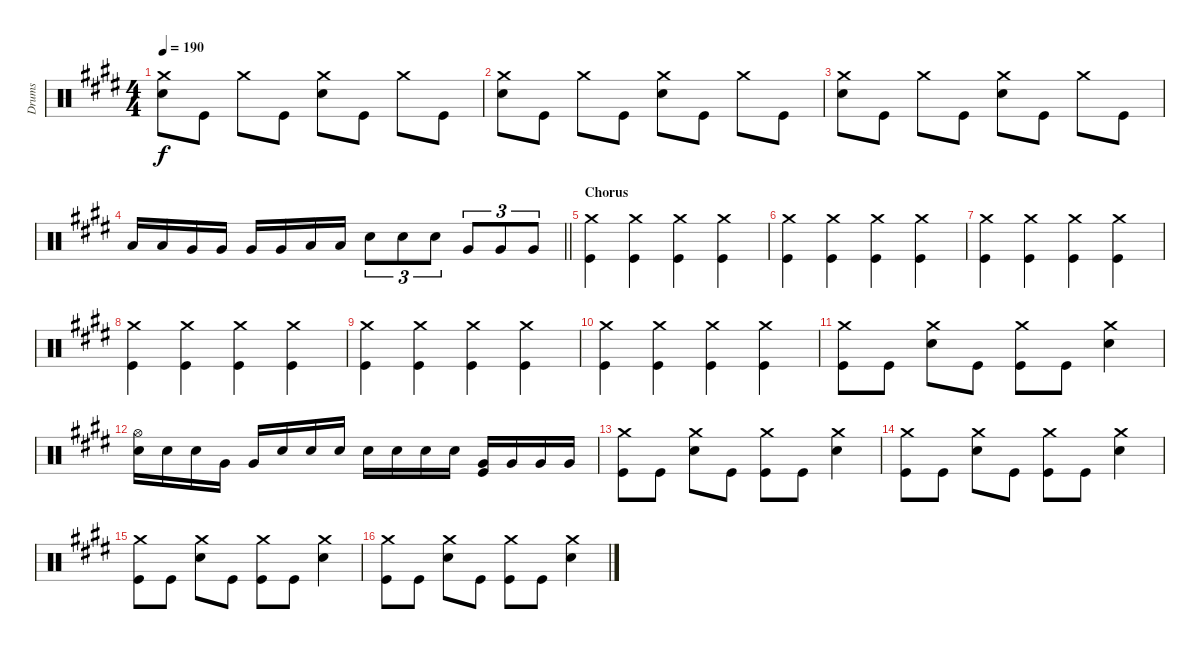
\track ("Drums" "Drums") {instrument percussion}
\staff {score}
\articulation defaults
\ts (4 4)
\tempo 190
\clef neutral
\ks e
("Snare (hit) 2" "Crash medium (hit)").8{dy f} "Kick (hit)".8 "Crash medium (hit)".8 "Kick (hit)".8 ("Snare (hit) 2" "Crash medium (hit)").8 "Kick (hit)".8 "Crash medium (hit)".8 "Kick (hit)".8 |
("Snare (hit) 2" "Crash medium (hit)").8 "Kick (hit)".8 "Crash medium (hit)".8 "Kick (hit)".8 ("Snare (hit) 2" "Crash medium (hit)").8 "Kick (hit)".8 "Crash medium (hit)".8 "Kick (hit)".8 |
("Snare (hit) 2" "Crash medium (hit)").8 "Kick (hit)".8 "Crash medium (hit)".8 "Kick (hit)".8 ("Snare (hit) 2" "Crash medium (hit)").8 "Kick (hit)".8 "Crash medium (hit)".8 "Kick (hit)".8 |
\barLineRight lightlight "Low Tom (hit)".16 "Low Tom (hit)".16 "Very Low Tom (hit)".16 "Very Low Tom (hit)".16 "Very Low Tom (hit)".16 "Very Low Tom (hit)".16 "Low Tom (hit)".16 "Low Tom (hit)".16 "Snare (hit) 2".8{tu (3 2)} "Snare (hit) 2".8{tu (3 2)} "Snare (hit) 2".8{tu (3 2)} "Very Low Tom (hit)".8{tu (3 2)} "Very Low Tom (hit)".8{tu (3 2)} "Very Low Tom (hit)".8{tu (3 2)}
|
\section ("" "Chorus")
("Kick (hit)" "Crash medium (hit)").4 ("Kick (hit)" "Crash medium (hit)").4 ("Kick (hit)" "Crash medium (hit)").4 ("Kick (hit)" "Crash medium (hit)").4 |
("Kick (hit)" "Crash medium (hit)").4 ("Kick (hit)" "Crash medium (hit)").4 ("Kick (hit)" "Crash medium (hit)").4 ("Kick (hit)" "Crash medium (hit)").4 |
("Kick (hit)" "Crash medium (hit)").4 ("Kick (hit)" "Crash medium (hit)").4 ("Kick (hit)" "Crash medium (hit)").4 ("Kick (hit)" "Crash medium (hit)").4 |
("Kick (hit)" "Crash medium (hit)").4 ("Kick (hit)" "Crash medium (hit)").4 ("Kick (hit)" "Crash medium (hit)").4 ("Kick (hit)" "Crash medium (hit)").4 |
("Kick (hit)" "Crash medium (hit)").4 ("Kick (hit)" "Crash medium (hit)").4 ("Kick (hit)" "Crash medium (hit)").4 ("Kick (hit)" "Crash medium (hit)").4 |
("Kick (hit)" "Crash medium (hit)").4 ("Kick (hit)" "Crash medium (hit)").4 ("Kick (hit)" "Crash medium (hit)").4 ("Kick (hit)" "Crash medium (hit)").4 |
("Kick (hit)" "Crash medium (hit)").8 "Kick (hit)".8 ("Snare (hit) 2" "Crash medium (hit)").8 "Kick (hit)".8 ("Kick (hit)" "Crash medium (hit)").8 "Kick (hit)".8 ("Snare (hit) 2" "Crash medium (hit)").4 |
("Snare (hit) 2" "Hi-Hat (open)").16 "Snare (hit) 2".16 "Snare (hit) 2".16 "Very Low Tom (hit)".16 "Very Low Tom (hit)".16 "Snare (hit) 2".16 "Snare (hit) 2".16 "Snare (hit) 2".16 "Snare (hit) 2".16 "Snare (hit) 2".16 "Snare (hit) 2".16 "Snare (hit) 2".16 ("Very Low Tom (hit)" "Kick (hit)").16 "Very Low Tom (hit)".16 "Very Low Tom (hit)".16 "Very Low Tom (hit)".16 |
("Kick (hit)" "Crash medium (hit)").8 "Kick (hit)".8 ("Snare (hit) 2" "Crash medium (hit)").8 "Kick (hit)".8 ("Kick (hit)" "Crash medium (hit)").8 "Kick (hit)".8 ("Snare (hit) 2" "Crash medium (hit)").4 |
("Kick (hit)" "Crash medium (hit)").8 "Kick (hit)".8 ("Snare (hit) 2" "Crash medium (hit)").8 "Kick (hit)".8 ("Kick (hit)" "Crash medium (hit)").8 "Kick (hit)".8 ("Snare (hit) 2" "Crash medium (hit)").4 |
("Kick (hit)" "Crash medium (hit)").8 "Kick (hit)".8 ("Snare (hit) 2" "Crash medium (hit)").8 "Kick (hit)".8 ("Kick (hit)" "Crash medium (hit)").8 "Kick (hit)".8 ("Snare (hit) 2" "Crash medium (hit)").4 |
("Kick (hit)" "Crash medium (hit)").8 "Kick (hit)".8 ("Snare (hit) 2" "Crash medium (hit)").8 "Kick (hit)".8 ("Kick (hit)" "Crash medium (hit)").8 "Kick (hit)".8 ("Snare (hit) 2" "Crash medium (hit)").4
